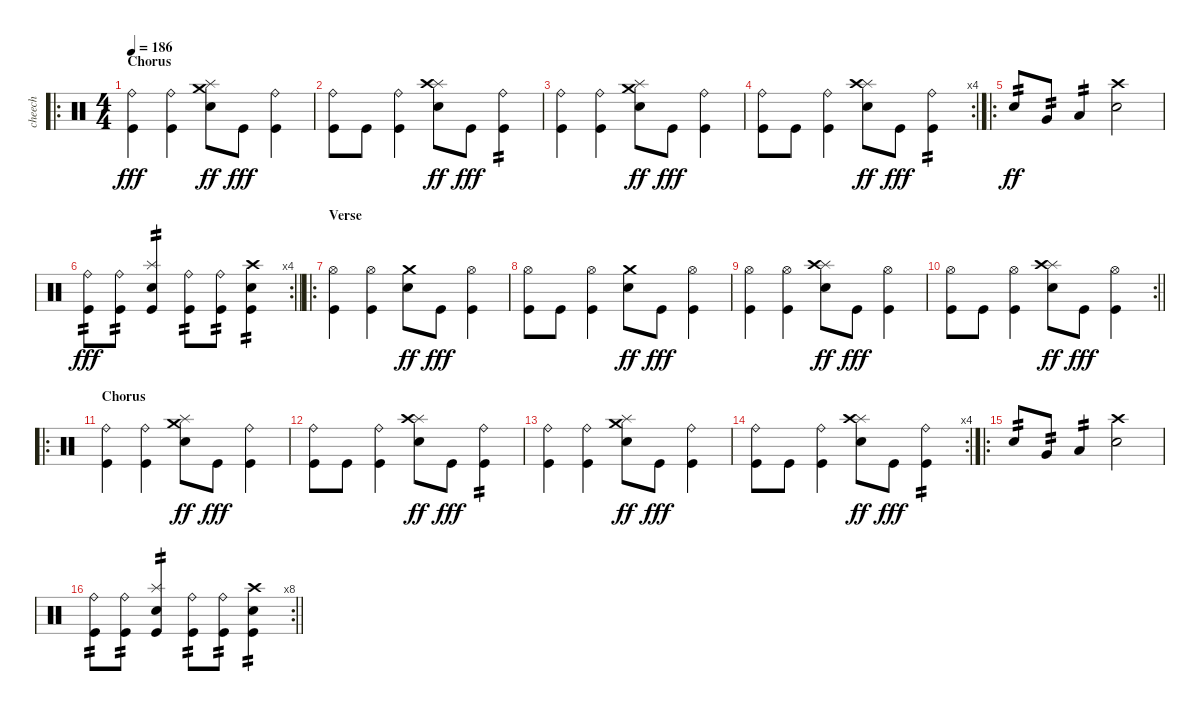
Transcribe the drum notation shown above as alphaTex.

\track ("cheech" "cheech") {instrument percussion}
\staff {score}
\articulation defaults
\ro
\ts (4 4)
\section ("" "Chorus")
\tempo 186
\clef neutral
\ks c
("Ride (bell)" "Kick (hit)").4{dy fff} ("Ride (bell)" "Kick (hit)").4 ("Splash (hit)" "Crash medium (hit)" "Electric Snare (hit)").8{dy ff} "Kick (hit)".8{dy fff} ("Ride (bell)" "Kick (hit)").4 |
("Ride (bell)" "Kick (hit)").8 "Kick (hit)".8 ("Ride (bell)" "Kick (hit)").4 ("Splash (hit)" "Crash high (hit)" "Electric Snare (hit)").8{dy ff} "Kick (hit)".8{dy fff} ("Ride (bell)" "Kick (hit)").4{tp 2} |
("Ride (bell)" "Kick (hit)").4 ("Ride (bell)" "Kick (hit)").4 ("Splash (hit)" "Crash medium (hit)" "Electric Snare (hit)").8{dy ff} "Kick (hit)".8{dy fff} ("Ride (bell)" "Kick (hit)").4 |
\rc 4
("Ride (bell)" "Kick (hit)").8 "Kick (hit)".8 ("Ride (bell)" "Kick (hit)").4 ("Splash (hit)" "Crash high (hit)" "Electric Snare (hit)").8{dy ff} "Kick (hit)".8{dy fff} ("Ride (bell)" "Kick (hit)").4{tp 2} |
\ro "Electric Snare (hit)".8{tp 2 dy ff} "Very Low Tom (hit)".8{tp 2} "Low Floor Tom (hit)".4{tp 2}
("Crash high (hit)" "Electric Snare (hit)").2 |
\rc 4
\barLineRight lightlight
("Ride (bell)" "Kick (hit)").8{tp 2 dy fff} ("Ride (bell)" "Kick (hit)").8{tp 2} ("Splash (hit)" "Electric Snare (hit)" "Kick (hit)").4{tp 2} ("Ride (bell)" "Kick (hit)").8{tp 2} ("Ride (bell)" "Kick (hit)").8{tp 2} ("Crash high (hit)" "Electric Snare (hit)" "Kick (hit)").4{tp 2} |
\ro
\section ("" "Verse")
("Hi-Hat (open)" "Kick (hit)").4 ("Hi-Hat (open)" "Kick (hit)").4 ("Crash medium (hit)" "Electric Snare (hit)").8{dy ff} "Kick (hit)".8{dy fff} ("Hi-Hat (open)" "Kick (hit)").4 |
("Hi-Hat (open)" "Kick (hit)").8 "Kick (hit)".8 ("Hi-Hat (open)" "Kick (hit)").4 ("Crash medium (hit)" "Electric Snare (hit)").8{dy ff} "Kick (hit)".8{dy fff} ("Hi-Hat (open)" "Kick (hit)").4 |
("Hi-Hat (open)" "Kick (hit)").4 ("Hi-Hat (open)" "Kick (hit)").4 ("Splash (hit)" "Crash high (hit)" "Electric Snare (hit)").8{dy ff} "Kick (hit)".8{dy fff} ("Hi-Hat (open)" "Kick (hit)").4 |
\rc 2
\barLineRight lightlight
("Hi-Hat (open)" "Kick (hit)").8 "Kick (hit)".8 ("Hi-Hat (open)" "Kick (hit)").4 ("Splash (hit)" "Crash high (hit)" "Electric Snare (hit)").8{dy ff} "Kick (hit)".8{dy fff} ("Hi-Hat (open)" "Kick (hit)").4 |
\ro
\section ("" "Chorus")
("Ride (bell)" "Kick (hit)").4 ("Ride (bell)" "Kick (hit)").4 ("Splash (hit)" "Crash medium (hit)" "Electric Snare (hit)").8{dy ff} "Kick (hit)".8{dy fff} ("Ride (bell)" "Kick (hit)").4 |
("Ride (bell)" "Kick (hit)").8 "Kick (hit)".8 ("Ride (bell)" "Kick (hit)").4 ("Splash (hit)" "Crash high (hit)" "Electric Snare (hit)").8{dy ff} "Kick (hit)".8{dy fff} ("Ride (bell)" "Kick (hit)").4{tp 2} |
("Ride (bell)" "Kick (hit)").4 ("Ride (bell)" "Kick (hit)").4 ("Splash (hit)" "Crash medium (hit)" "Electric Snare (hit)").8{dy ff} "Kick (hit)".8{dy fff} ("Ride (bell)" "Kick (hit)").4 |
\rc 4
("Ride (bell)" "Kick (hit)").8 "Kick (hit)".8 ("Ride (bell)" "Kick (hit)").4 ("Splash (hit)" "Crash high (hit)" "Electric Snare (hit)").8{dy ff} "Kick (hit)".8{dy fff} ("Ride (bell)" "Kick (hit)").4{tp 2} |
\ro "Electric Snare (hit)".8{tp 2} "Very Low Tom (hit)".8{tp 2} "Low Floor Tom (hit)".4{tp 2}
("Crash high (hit)" "Electric Snare (hit)").2 |
\rc 8
\barLineRight lightlight
("Ride (bell)" "Kick (hit)").8{tp 2} ("Ride (bell)" "Kick (hit)").8{tp 2} ("Splash (hit)" "Electric Snare (hit)" "Kick (hit)").4{tp 2} ("Ride (bell)" "Kick (hit)").8{tp 2} ("Ride (bell)" "Kick (hit)").8{tp 2} ("Crash high (hit)" "Electric Snare (hit)" "Kick (hit)").4{tp 2}
